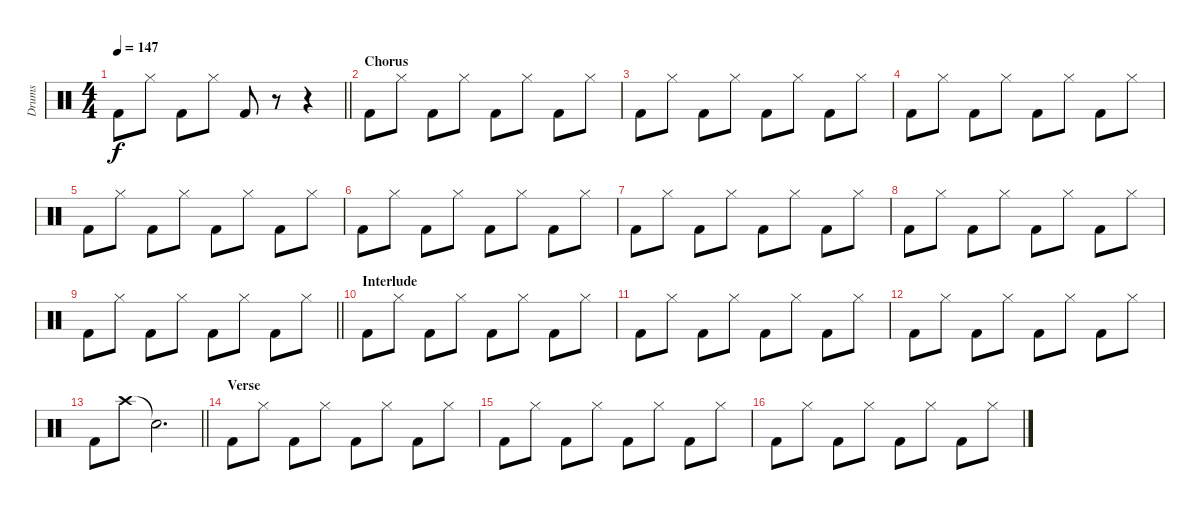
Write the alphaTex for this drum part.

\track ("Drums" "Drums") {instrument percussion}
\staff {score}
\articulation defaults
\ts (4 4)
\tempo 147
\clef neutral
\barLineRight lightlight
\ks c "Kick (hit) 2".8{dy f} "Hi-Hat (closed)".8 "Kick (hit) 2".8 "Hi-Hat (closed)".8 "Kick (hit) 2".8
r.8 r.4 |
\section ("" "Chorus")
"Kick (hit) 2".8 "Hi-Hat (closed)".8 "Kick (hit) 2".8 "Hi-Hat (closed)".8 "Kick (hit) 2".8 "Hi-Hat (closed)".8 "Kick (hit) 2".8 "Hi-Hat (closed)".8 |
"Kick (hit) 2".8 "Hi-Hat (closed)".8 "Kick (hit) 2".8 "Hi-Hat (closed)".8 "Kick (hit) 2".8 "Hi-Hat (closed)".8 "Kick (hit) 2".8 "Hi-Hat (closed)".8 |
"Kick (hit) 2".8 "Hi-Hat (closed)".8 "Kick (hit) 2".8 "Hi-Hat (closed)".8 "Kick (hit) 2".8 "Hi-Hat (closed)".8 "Kick (hit) 2".8 "Hi-Hat (closed)".8 |
"Kick (hit) 2".8 "Hi-Hat (closed)".8 "Kick (hit) 2".8 "Hi-Hat (closed)".8 "Kick (hit) 2".8 "Hi-Hat (closed)".8 "Kick (hit) 2".8 "Hi-Hat (closed)".8 |
"Kick (hit) 2".8 "Hi-Hat (closed)".8 "Kick (hit) 2".8 "Hi-Hat (closed)".8 "Kick (hit) 2".8 "Hi-Hat (closed)".8 "Kick (hit) 2".8 "Hi-Hat (closed)".8 |
"Kick (hit) 2".8 "Hi-Hat (closed)".8 "Kick (hit) 2".8 "Hi-Hat (closed)".8 "Kick (hit) 2".8 "Hi-Hat (closed)".8 "Kick (hit) 2".8 "Hi-Hat (closed)".8 |
"Kick (hit) 2".8 "Hi-Hat (closed)".8 "Kick (hit) 2".8 "Hi-Hat (closed)".8 "Kick (hit) 2".8 "Hi-Hat (closed)".8 "Kick (hit) 2".8 "Hi-Hat (closed)".8 |
\barLineRight lightlight "Kick (hit) 2".8 "Hi-Hat (closed)".8 "Kick (hit) 2".8 "Hi-Hat (closed)".8 "Kick (hit) 2".8 "Hi-Hat (closed)".8 "Kick (hit) 2".8 "Hi-Hat (closed)".8
|
\section ("" "Interlude")
"Kick (hit) 2".8 "Hi-Hat (closed)".8 "Kick (hit) 2".8 "Hi-Hat (closed)".8 "Kick (hit) 2".8 "Hi-Hat (closed)".8 "Kick (hit) 2".8 "Hi-Hat (closed)".8 |
"Kick (hit) 2".8 "Hi-Hat (closed)".8 "Kick (hit) 2".8 "Hi-Hat (closed)".8 "Kick (hit) 2".8 "Hi-Hat (closed)".8 "Kick (hit) 2".8 "Hi-Hat (closed)".8 |
"Kick (hit) 2".8 "Hi-Hat (closed)".8 "Kick (hit) 2".8 "Hi-Hat (closed)".8 "Kick (hit) 2".8 "Hi-Hat (closed)".8 "Kick (hit) 2".8 "Hi-Hat (closed)".8 |
\barLineRight lightlight "Kick (hit) 2".8 "Crash high (hit)".8 "Snare (hit)"{t}.2{d}
|
\section ("" "Verse")
"Kick (hit) 2".8 "Hi-Hat (closed)".8 "Kick (hit) 2".8 "Hi-Hat (closed)".8 "Kick (hit) 2".8 "Hi-Hat (closed)".8 "Kick (hit) 2".8 "Hi-Hat (closed)".8 |
"Kick (hit) 2".8 "Hi-Hat (closed)".8 "Kick (hit) 2".8 "Hi-Hat (closed)".8 "Kick (hit) 2".8 "Hi-Hat (closed)".8 "Kick (hit) 2".8 "Hi-Hat (closed)".8 |
"Kick (hit) 2".8 "Hi-Hat (closed)".8 "Kick (hit) 2".8 "Hi-Hat (closed)".8 "Kick (hit) 2".8 "Hi-Hat (closed)".8 "Kick (hit) 2".8 "Hi-Hat (closed)".8
